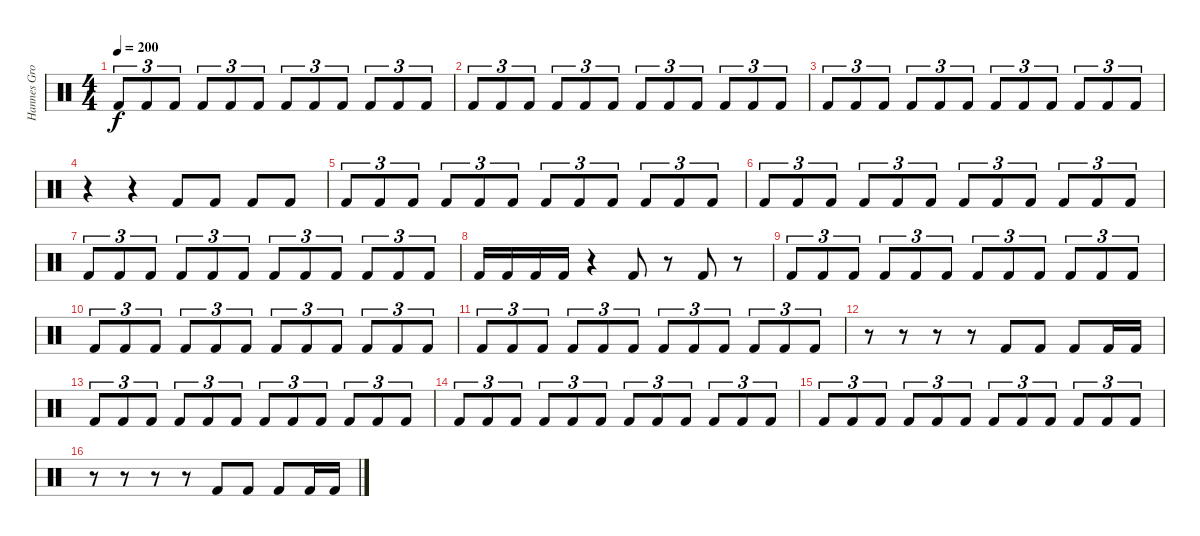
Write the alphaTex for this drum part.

\track ("Hannes Grossmann" "Hannes Gro") {instrument percussion}
\staff {score}
\articulation defaults
\ts (4 4)
\tempo 200
\clef neutral
\ks c "Kick (hit) 2".8{tu (3 2) dy f} "Kick (hit) 2".8{tu (3 2)} "Kick (hit) 2".8{tu (3 2)} "Kick (hit) 2".8{tu (3 2)} "Kick (hit) 2".8{tu (3 2)} "Kick (hit) 2".8{tu (3 2)} "Kick (hit) 2".8{tu (3 2)} "Kick (hit) 2".8{tu (3 2)} "Kick (hit) 2".8{tu (3 2)} "Kick (hit) 2".8{tu (3 2)} "Kick (hit) 2".8{tu (3 2)} "Kick (hit) 2".8{tu (3 2)}
|
"Kick (hit) 2".8{tu (3 2)} "Kick (hit) 2".8{tu (3 2)} "Kick (hit) 2".8{tu (3 2)} "Kick (hit) 2".8{tu (3 2)} "Kick (hit) 2".8{tu (3 2)} "Kick (hit) 2".8{tu (3 2)} "Kick (hit) 2".8{tu (3 2)} "Kick (hit) 2".8{tu (3 2)} "Kick (hit) 2".8{tu (3 2)} "Kick (hit) 2".8{tu (3 2)} "Kick (hit) 2".8{tu (3 2)} "Kick (hit) 2".8{tu (3 2)} |
"Kick (hit) 2".8{tu (3 2)} "Kick (hit) 2".8{tu (3 2)} "Kick (hit) 2".8{tu (3 2)} "Kick (hit) 2".8{tu (3 2)} "Kick (hit) 2".8{tu (3 2)} "Kick (hit) 2".8{tu (3 2)} "Kick (hit) 2".8{tu (3 2)} "Kick (hit) 2".8{tu (3 2)} "Kick (hit) 2".8{tu (3 2)} "Kick (hit) 2".8{tu (3 2)} "Kick (hit) 2".8{tu (3 2)} "Kick (hit) 2".8{tu (3 2)} |
r.4 r.4 "Kick (hit) 2".8 "Kick (hit) 2".8 "Kick (hit) 2".8 "Kick (hit) 2".8 |
"Kick (hit) 2".8{tu (3 2)} "Kick (hit) 2".8{tu (3 2)} "Kick (hit) 2".8{tu (3 2)} "Kick (hit) 2".8{tu (3 2)} "Kick (hit) 2".8{tu (3 2)} "Kick (hit) 2".8{tu (3 2)} "Kick (hit) 2".8{tu (3 2)} "Kick (hit) 2".8{tu (3 2)} "Kick (hit) 2".8{tu (3 2)} "Kick (hit) 2".8{tu (3 2)} "Kick (hit) 2".8{tu (3 2)} "Kick (hit) 2".8{tu (3 2)} |
"Kick (hit) 2".8{tu (3 2)} "Kick (hit) 2".8{tu (3 2)} "Kick (hit) 2".8{tu (3 2)} "Kick (hit) 2".8{tu (3 2)} "Kick (hit) 2".8{tu (3 2)} "Kick (hit) 2".8{tu (3 2)} "Kick (hit) 2".8{tu (3 2)} "Kick (hit) 2".8{tu (3 2)} "Kick (hit) 2".8{tu (3 2)} "Kick (hit) 2".8{tu (3 2)} "Kick (hit) 2".8{tu (3 2)} "Kick (hit) 2".8{tu (3 2)} |
"Kick (hit) 2".8{tu (3 2)} "Kick (hit) 2".8{tu (3 2)} "Kick (hit) 2".8{tu (3 2)} "Kick (hit) 2".8{tu (3 2)} "Kick (hit) 2".8{tu (3 2)} "Kick (hit) 2".8{tu (3 2)} "Kick (hit) 2".8{tu (3 2)} "Kick (hit) 2".8{tu (3 2)} "Kick (hit) 2".8{tu (3 2)} "Kick (hit) 2".8{tu (3 2)} "Kick (hit) 2".8{tu (3 2)} "Kick (hit) 2".8{tu (3 2)} |
"Kick (hit) 2".16 "Kick (hit) 2".16 "Kick (hit) 2".16 "Kick (hit) 2".16 r.4 "Kick (hit) 2".8 r.8 "Kick (hit) 2".8 r.8 |
"Kick (hit) 2".8{tu (3 2)} "Kick (hit) 2".8{tu (3 2)} "Kick (hit) 2".8{tu (3 2)} "Kick (hit) 2".8{tu (3 2)} "Kick (hit) 2".8{tu (3 2)} "Kick (hit) 2".8{tu (3 2)} "Kick (hit) 2".8{tu (3 2)} "Kick (hit) 2".8{tu (3 2)} "Kick (hit) 2".8{tu (3 2)} "Kick (hit) 2".8{tu (3 2)} "Kick (hit) 2".8{tu (3 2)} "Kick (hit) 2".8{tu (3 2)} |
"Kick (hit) 2".8{tu (3 2)} "Kick (hit) 2".8{tu (3 2)} "Kick (hit) 2".8{tu (3 2)} "Kick (hit) 2".8{tu (3 2)} "Kick (hit) 2".8{tu (3 2)} "Kick (hit) 2".8{tu (3 2)} "Kick (hit) 2".8{tu (3 2)} "Kick (hit) 2".8{tu (3 2)} "Kick (hit) 2".8{tu (3 2)} "Kick (hit) 2".8{tu (3 2)} "Kick (hit) 2".8{tu (3 2)} "Kick (hit) 2".8{tu (3 2)} |
"Kick (hit) 2".8{tu (3 2)} "Kick (hit) 2".8{tu (3 2)} "Kick (hit) 2".8{tu (3 2)} "Kick (hit) 2".8{tu (3 2)} "Kick (hit) 2".8{tu (3 2)} "Kick (hit) 2".8{tu (3 2)} "Kick (hit) 2".8{tu (3 2)} "Kick (hit) 2".8{tu (3 2)} "Kick (hit) 2".8{tu (3 2)} "Kick (hit) 2".8{tu (3 2)} "Kick (hit) 2".8{tu (3 2)} "Kick (hit) 2".8{tu (3 2)} |
r.8 r.8 r.8 r.8 "Kick (hit) 2".8 "Kick (hit) 2".8 "Kick (hit) 2".8 "Kick (hit) 2".16 "Kick (hit) 2".16 |
"Kick (hit) 2".8{tu (3 2)} "Kick (hit) 2".8{tu (3 2)} "Kick (hit) 2".8{tu (3 2)} "Kick (hit) 2".8{tu (3 2)} "Kick (hit) 2".8{tu (3 2)} "Kick (hit) 2".8{tu (3 2)} "Kick (hit) 2".8{tu (3 2)} "Kick (hit) 2".8{tu (3 2)} "Kick (hit) 2".8{tu (3 2)} "Kick (hit) 2".8{tu (3 2)} "Kick (hit) 2".8{tu (3 2)} "Kick (hit) 2".8{tu (3 2)} |
"Kick (hit) 2".8{tu (3 2)} "Kick (hit) 2".8{tu (3 2)} "Kick (hit) 2".8{tu (3 2)} "Kick (hit) 2".8{tu (3 2)} "Kick (hit) 2".8{tu (3 2)} "Kick (hit) 2".8{tu (3 2)} "Kick (hit) 2".8{tu (3 2)} "Kick (hit) 2".8{tu (3 2)} "Kick (hit) 2".8{tu (3 2)} "Kick (hit) 2".8{tu (3 2)} "Kick (hit) 2".8{tu (3 2)} "Kick (hit) 2".8{tu (3 2)} |
"Kick (hit) 2".8{tu (3 2)} "Kick (hit) 2".8{tu (3 2)} "Kick (hit) 2".8{tu (3 2)} "Kick (hit) 2".8{tu (3 2)} "Kick (hit) 2".8{tu (3 2)} "Kick (hit) 2".8{tu (3 2)} "Kick (hit) 2".8{tu (3 2)} "Kick (hit) 2".8{tu (3 2)} "Kick (hit) 2".8{tu (3 2)} "Kick (hit) 2".8{tu (3 2)} "Kick (hit) 2".8{tu (3 2)} "Kick (hit) 2".8{tu (3 2)} |
r.8 r.8 r.8 r.8 "Kick (hit) 2".8 "Kick (hit) 2".8 "Kick (hit) 2".8 "Kick (hit) 2".16 "Kick (hit) 2".16
